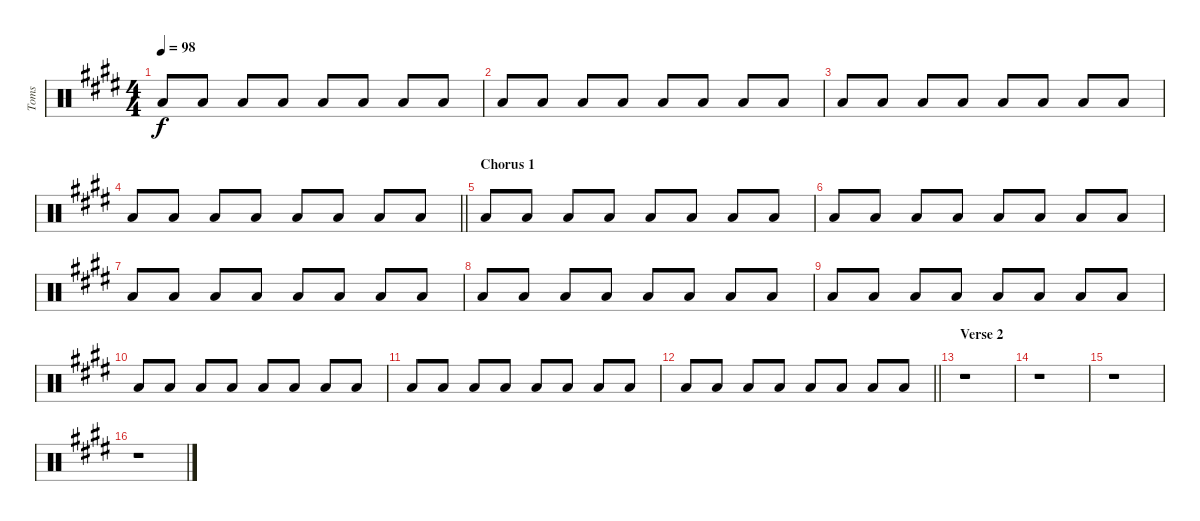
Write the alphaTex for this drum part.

\track ("Toms" "Toms") {instrument percussion}
\staff {score}
\articulation defaults
\ts (4 4)
\tempo 98
\clef neutral
\ks c#minor "Low Tom (hit)".8{dy f} "Low Floor Tom (hit)".8 "Low Floor Tom (hit)".8 "Low Floor Tom (hit)".8 "Low Tom (hit)".8 "Low Floor Tom (hit)".8 "Low Floor Tom (hit)".8 "Low Floor Tom (hit)".8
|
"Low Tom (hit)".8 "Low Floor Tom (hit)".8 "Low Floor Tom (hit)".8 "Low Floor Tom (hit)".8 "Low Tom (hit)".8 "Low Floor Tom (hit)".8 "Low Floor Tom (hit)".8 "Low Floor Tom (hit)".8 |
"Low Tom (hit)".8 "Low Floor Tom (hit)".8 "Low Floor Tom (hit)".8 "Low Floor Tom (hit)".8 "Low Tom (hit)".8 "Low Floor Tom (hit)".8 "Low Floor Tom (hit)".8 "Low Floor Tom (hit)".8 |
\barLineRight lightlight "Low Tom (hit)".8 "Low Floor Tom (hit)".8 "Low Floor Tom (hit)".8 "Low Floor Tom (hit)".8 "Low Tom (hit)".8 "Low Floor Tom (hit)".8 "Low Floor Tom (hit)".8 "Low Floor Tom (hit)".8
|
\section ("" "Chorus 1")
"Low Tom (hit)".8 "Low Floor Tom (hit)".8 "Low Floor Tom (hit)".8 "Low Floor Tom (hit)".8 "Low Tom (hit)".8 "Low Floor Tom (hit)".8 "Low Floor Tom (hit)".8 "Low Floor Tom (hit)".8 |
"Low Tom (hit)".8 "Low Floor Tom (hit)".8 "Low Floor Tom (hit)".8 "Low Floor Tom (hit)".8 "Low Tom (hit)".8 "Low Floor Tom (hit)".8 "Low Floor Tom (hit)".8 "Low Floor Tom (hit)".8 |
"Low Tom (hit)".8 "Low Floor Tom (hit)".8 "Low Floor Tom (hit)".8 "Low Floor Tom (hit)".8 "Low Tom (hit)".8 "Low Floor Tom (hit)".8 "Low Floor Tom (hit)".8 "Low Floor Tom (hit)".8 |
"Low Tom (hit)".8 "Low Floor Tom (hit)".8 "Low Floor Tom (hit)".8 "Low Floor Tom (hit)".8 "Low Tom (hit)".8 "Low Floor Tom (hit)".8 "Low Floor Tom (hit)".8 "Low Floor Tom (hit)".8 |
"Low Tom (hit)".8 "Low Floor Tom (hit)".8 "Low Floor Tom (hit)".8 "Low Floor Tom (hit)".8 "Low Tom (hit)".8 "Low Floor Tom (hit)".8 "Low Floor Tom (hit)".8 "Low Floor Tom (hit)".8 |
"Low Tom (hit)".8 "Low Floor Tom (hit)".8 "Low Floor Tom (hit)".8 "Low Floor Tom (hit)".8 "Low Tom (hit)".8 "Low Floor Tom (hit)".8 "Low Floor Tom (hit)".8 "Low Floor Tom (hit)".8 |
"Low Tom (hit)".8 "Low Floor Tom (hit)".8 "Low Floor Tom (hit)".8 "Low Floor Tom (hit)".8 "Low Tom (hit)".8 "Low Floor Tom (hit)".8 "Low Floor Tom (hit)".8 "Low Floor Tom (hit)".8 |
\barLineRight lightlight "Low Tom (hit)".8 "Low Floor Tom (hit)".8 "Low Floor Tom (hit)".8 "Low Floor Tom (hit)".8 "Low Tom (hit)".8 "Low Floor Tom (hit)".8 "Low Floor Tom (hit)".8 "Low Floor Tom (hit)".8
|
\section ("" "Verse 2")
r.1 |
r.1 |
r.1 |
r.1
